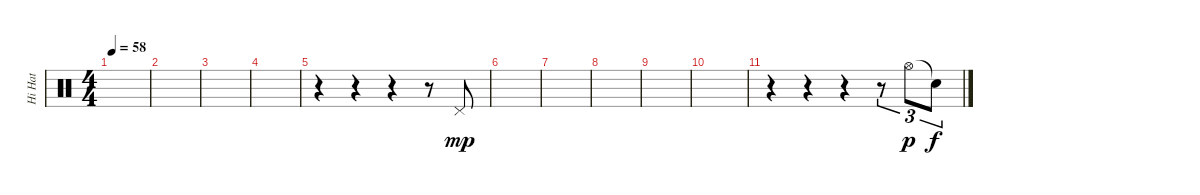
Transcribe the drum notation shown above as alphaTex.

\track ("Hi Hat" "Hi Hat") {instrument percussion}
\staff {score}
\articulation defaults
\ts (4 4)
\tempo 58
\clef neutral
\ks c
|
|
|
|
r.4 r.4 r.4 r.8 "Pedal Hi-Hat (hit)".8{dy mp} |
|
|
|
|
|
r.4 r.4 r.4 r.8{tu (3 2)} "Hi-Hat (open)".8{tu (3 2) dy p} "Snare (hit)"{t}.8{tu (3 2) dy f}
